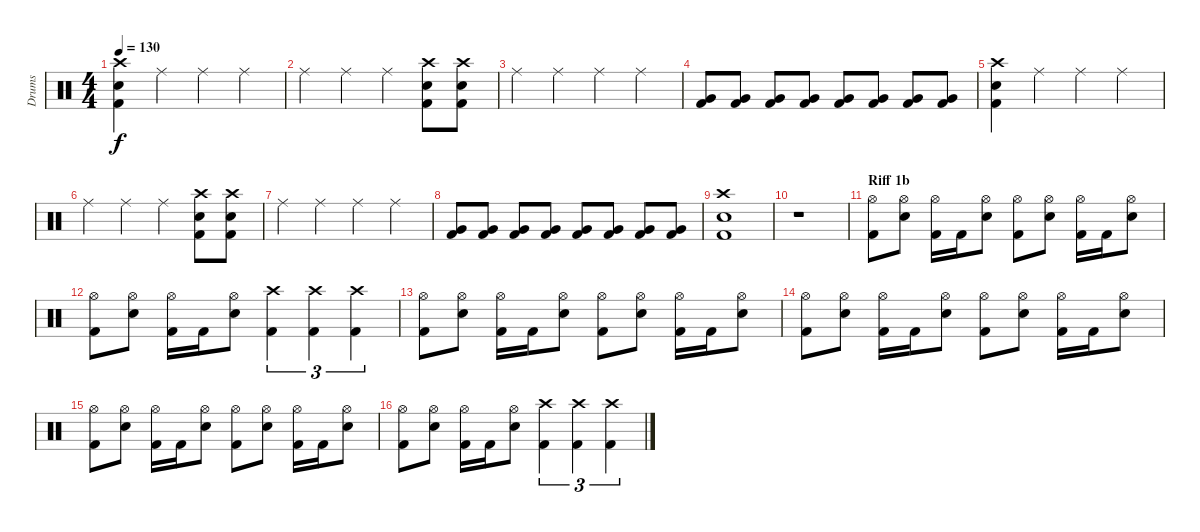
\track ("Drums" "Drums") {instrument percussion}
\staff {score}
\articulation defaults
\ts (4 4)
\tempo 130
\clef neutral
\ks c
("Crash high (hit)" "Electric Snare (hit)" "Kick (hit) 2").4{dy f} "Ride (middle)".4 "Ride (middle)".4 "Ride (middle)".4 |
"Ride (middle)".4 "Ride (middle)".4 "Ride (middle)".4 ("Crash high (hit)" "Electric Snare (hit)" "Kick (hit) 2").8 ("Crash high (hit)" "Electric Snare (hit)" "Kick (hit) 2").8 |
"Ride (middle)".4 "Ride (middle)".4 "Ride (middle)".4 "Ride (middle)".4 |
("Very Low Tom (hit)" "Kick (hit) 2").8 ("Very Low Tom (hit)" "Kick (hit) 2").8 ("Very Low Tom (hit)" "Kick (hit) 2").8 ("Very Low Tom (hit)" "Kick (hit) 2").8 ("Very Low Tom (hit)" "Kick (hit) 2").8 ("Very Low Tom (hit)" "Kick (hit) 2").8 ("Very Low Tom (hit)" "Kick (hit) 2").8 ("Very Low Tom (hit)" "Kick (hit) 2").8 |
("Crash high (hit)" "Electric Snare (hit)" "Kick (hit) 2").4 "Ride (middle)".4 "Ride (middle)".4 "Ride (middle)".4 |
"Ride (middle)".4 "Ride (middle)".4 "Ride (middle)".4 ("Crash high (hit)" "Electric Snare (hit)" "Kick (hit) 2").8 ("Crash high (hit)" "Electric Snare (hit)" "Kick (hit) 2").8 |
"Ride (middle)".4 "Ride (middle)".4 "Ride (middle)".4 "Ride (middle)".4 |
("Very Low Tom (hit)" "Kick (hit) 2").8 ("Very Low Tom (hit)" "Kick (hit) 2").8 ("Very Low Tom (hit)" "Kick (hit) 2").8 ("Very Low Tom (hit)" "Kick (hit) 2").8 ("Very Low Tom (hit)" "Kick (hit) 2").8 ("Very Low Tom (hit)" "Kick (hit) 2").8 ("Very Low Tom (hit)" "Kick (hit) 2").8 ("Very Low Tom (hit)" "Kick (hit) 2").8 |
("Crash high (hit)" "Electric Snare (hit)" "Kick (hit) 2").1 |
r.1 |
\section ("" "Riff 1b")
("Hi-Hat (open)" "Kick (hit) 2").8 ("Hi-Hat (open)" "Electric Snare (hit)").8 ("Hi-Hat (open)" "Kick (hit) 2").16 "Kick (hit) 2".16 ("Hi-Hat (open)" "Electric Snare (hit)").8 ("Hi-Hat (open)" "Kick (hit) 2").8 ("Hi-Hat (open)" "Electric Snare (hit)").8 ("Hi-Hat (open)" "Kick (hit) 2").16 "Kick (hit) 2".16 ("Hi-Hat (open)" "Electric Snare (hit)").8 |
("Hi-Hat (open)" "Kick (hit) 2").8 ("Hi-Hat (open)" "Electric Snare (hit)").8 ("Hi-Hat (open)" "Kick (hit) 2").16 "Kick (hit) 2".16 ("Hi-Hat (open)" "Electric Snare (hit)").8 ("Crash high (hit)" "Kick (hit) 2").4{tu (3 2)} ("Crash high (hit)" "Kick (hit) 2").4{tu (3 2)} ("Crash high (hit)" "Kick (hit) 2").4{tu (3 2)} |
("Hi-Hat (open)" "Kick (hit) 2").8 ("Hi-Hat (open)" "Electric Snare (hit)").8 ("Hi-Hat (open)" "Kick (hit) 2").16 "Kick (hit) 2".16 ("Hi-Hat (open)" "Electric Snare (hit)").8 ("Hi-Hat (open)" "Kick (hit) 2").8 ("Hi-Hat (open)" "Electric Snare (hit)").8 ("Hi-Hat (open)" "Kick (hit) 2").16 "Kick (hit) 2".16 ("Hi-Hat (open)" "Electric Snare (hit)").8 |
("Hi-Hat (open)" "Kick (hit) 2").8 ("Hi-Hat (open)" "Electric Snare (hit)").8 ("Hi-Hat (open)" "Kick (hit) 2").16 "Kick (hit) 2".16 ("Hi-Hat (open)" "Electric Snare (hit)").8 ("Hi-Hat (open)" "Kick (hit) 2").8 ("Hi-Hat (open)" "Electric Snare (hit)").8 ("Hi-Hat (open)" "Kick (hit) 2").16 "Kick (hit) 2".16 ("Hi-Hat (open)" "Electric Snare (hit)").8 |
("Hi-Hat (open)" "Kick (hit) 2").8 ("Hi-Hat (open)" "Electric Snare (hit)").8 ("Hi-Hat (open)" "Kick (hit) 2").16 "Kick (hit) 2".16 ("Hi-Hat (open)" "Electric Snare (hit)").8 ("Hi-Hat (open)" "Kick (hit) 2").8 ("Hi-Hat (open)" "Electric Snare (hit)").8 ("Hi-Hat (open)" "Kick (hit) 2").16 "Kick (hit) 2".16 ("Hi-Hat (open)" "Electric Snare (hit)").8 |
("Hi-Hat (open)" "Kick (hit) 2").8 ("Hi-Hat (open)" "Electric Snare (hit)").8 ("Hi-Hat (open)" "Kick (hit) 2").16 "Kick (hit) 2".16 ("Hi-Hat (open)" "Electric Snare (hit)").8 ("Crash high (hit)" "Kick (hit) 2").4{tu (3 2)} ("Crash high (hit)" "Kick (hit) 2").4{tu (3 2)} ("Crash high (hit)" "Kick (hit) 2").4{tu (3 2)}
